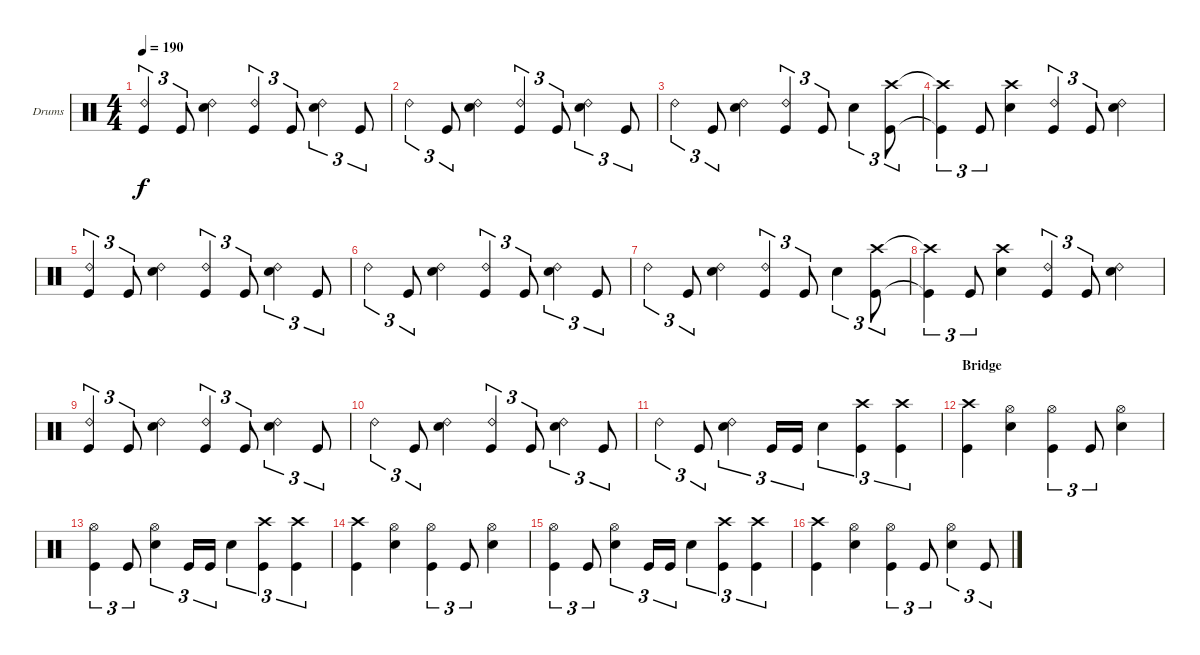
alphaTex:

\bracketExtendMode groupsimilarinstruments
\firstSystemTrackNameOrientation horizontal
\otherSystemsTrackNameOrientation horizontal
\track ("Drums" "Drums") {instrument percussion}
\staff {score}
\articulation defaults
\ts (4 4)
\tempo 190
\clef neutral
\ks c
("Kick (hit)" "Ride (bell) 2").4{tu (3 2) dy f} "Kick (hit)".8{tu (3 2)} ("Snare (hit) 2" "Ride (bell) 2").4 ("Kick (hit)" "Ride (bell) 2").4{tu (3 2)} "Kick (hit)".8{tu (3 2)} ("Snare (hit) 2" "Ride (bell) 2").4{tu (3 2)} "Kick (hit)".8{tu (3 2)} |
"Ride (bell) 2".4{tu (3 2)} "Kick (hit)".8{tu (3 2)} ("Snare (hit) 2" "Ride (bell) 2").4 ("Kick (hit)" "Ride (bell) 2").4{tu (3 2)} "Kick (hit)".8{tu (3 2)} ("Snare (hit) 2" "Ride (bell) 2").4{tu (3 2)} "Kick (hit)".8{tu (3 2)} |
"Ride (bell) 2".4{tu (3 2)} "Kick (hit)".8{tu (3 2)} ("Snare (hit) 2" "Ride (bell) 2").4 ("Kick (hit)" "Ride (bell) 2").4{tu (3 2)} "Kick (hit)".8{tu (3 2)} "Snare (hit) 2".4{tu (3 2)} ("Kick (hit)" "Crash high (hit)").8{tu (3 2)} |
("Kick (hit)"{t} "Crash high (hit)"{t}).4{tu (3 2)} "Kick (hit)".8{tu (3 2)} ("Snare (hit) 2" "Crash high (hit)").4 ("Kick (hit)" "Ride (bell) 2").4{tu (3 2)} "Kick (hit)".8{tu (3 2)} ("Snare (hit) 2" "Ride (bell) 2").4 |
("Kick (hit)" "Ride (bell) 2").4{tu (3 2)} "Kick (hit)".8{tu (3 2)} ("Snare (hit) 2" "Ride (bell) 2").4 ("Kick (hit)" "Ride (bell) 2").4{tu (3 2)} "Kick (hit)".8{tu (3 2)} ("Snare (hit) 2" "Ride (bell) 2").4{tu (3 2)} "Kick (hit)".8{tu (3 2)} |
"Ride (bell) 2".4{tu (3 2)} "Kick (hit)".8{tu (3 2)} ("Snare (hit) 2" "Ride (bell) 2").4 ("Kick (hit)" "Ride (bell) 2").4{tu (3 2)} "Kick (hit)".8{tu (3 2)} ("Snare (hit) 2" "Ride (bell) 2").4{tu (3 2)} "Kick (hit)".8{tu (3 2)} |
"Ride (bell) 2".4{tu (3 2)} "Kick (hit)".8{tu (3 2)} ("Snare (hit) 2" "Ride (bell) 2").4 ("Kick (hit)" "Ride (bell) 2").4{tu (3 2)} "Kick (hit)".8{tu (3 2)} "Snare (hit) 2".4{tu (3 2)} ("Kick (hit)" "Crash high (hit)").8{tu (3 2)} |
("Kick (hit)"{t} "Crash high (hit)"{t}).4{tu (3 2)} "Kick (hit)".8{tu (3 2)} ("Snare (hit) 2" "Crash high (hit)").4 ("Kick (hit)" "Ride (bell) 2").4{tu (3 2)} "Kick (hit)".8{tu (3 2)} ("Snare (hit) 2" "Ride (bell) 2").4 |
("Kick (hit)" "Ride (bell) 2").4{tu (3 2)} "Kick (hit)".8{tu (3 2)} ("Snare (hit) 2" "Ride (bell) 2").4 ("Kick (hit)" "Ride (bell) 2").4{tu (3 2)} "Kick (hit)".8{tu (3 2)} ("Snare (hit) 2" "Ride (bell) 2").4{tu (3 2)} "Kick (hit)".8{tu (3 2)} |
"Ride (bell) 2".4{tu (3 2)} "Kick (hit)".8{tu (3 2)} ("Snare (hit) 2" "Ride (bell) 2").4 ("Kick (hit)" "Ride (bell) 2").4{tu (3 2)} "Kick (hit)".8{tu (3 2)} ("Snare (hit) 2" "Ride (bell) 2").4{tu (3 2)} "Kick (hit)".8{tu (3 2)} |
"Ride (bell) 2".4{tu (3 2)} "Kick (hit)".8{tu (3 2)} ("Snare (hit) 2" "Ride (bell) 2").4{tu (3 2)} "Kick (hit)".16{tu (3 2)} "Kick (hit)".16{tu (3 2)} "Snare (hit) 2".4{tu (3 2)} ("Kick (hit)" "Crash high (hit)").4{tu (3 2)} ("Kick (hit)" "Crash high (hit)").4{tu (3 2)} |
\section ("" "Bridge")
("Kick (hit)" "Crash high (hit)").4 ("Hi-Hat (open)" "Snare (hit) 2").4 ("Hi-Hat (open)" "Kick (hit)").4{tu (3 2)} "Kick (hit)".8{tu (3 2)} ("Snare (hit) 2" "Hi-Hat (open)").4 |
("Kick (hit)" "Hi-Hat (open)").4{tu (3 2)} "Kick (hit)".8{tu (3 2)} ("Snare (hit) 2" "Hi-Hat (open)").4{tu (3 2)} "Kick (hit)".16{tu (3 2)} "Kick (hit)".16{tu (3 2)} "Snare (hit) 2".4{tu (3 2)} ("Crash high (hit)" "Kick (hit)").4{tu (3 2)} ("Crash high (hit)" "Kick (hit)").4{tu (3 2)} |
("Kick (hit)" "Crash high (hit)").4 ("Hi-Hat (open)" "Snare (hit) 2").4 ("Hi-Hat (open)" "Kick (hit)").4{tu (3 2)} "Kick (hit)".8{tu (3 2)} ("Snare (hit) 2" "Hi-Hat (open)").4 |
("Kick (hit)" "Hi-Hat (open)").4{tu (3 2)} "Kick (hit)".8{tu (3 2)} ("Snare (hit) 2" "Hi-Hat (open)").4{tu (3 2)} "Kick (hit)".16{tu (3 2)} "Kick (hit)".16{tu (3 2)} "Snare (hit) 2".4{tu (3 2)} ("Crash high (hit)" "Kick (hit)").4{tu (3 2)} ("Crash high (hit)" "Kick (hit)").4{tu (3 2)} |
("Kick (hit)" "Crash high (hit)").4 ("Hi-Hat (open)" "Snare (hit) 2").4 ("Hi-Hat (open)" "Kick (hit)").4{tu (3 2)} "Kick (hit)".8{tu (3 2)} ("Snare (hit) 2" "Hi-Hat (open)").4{tu (3 2)} "Kick (hit)".8{tu (3 2)}
